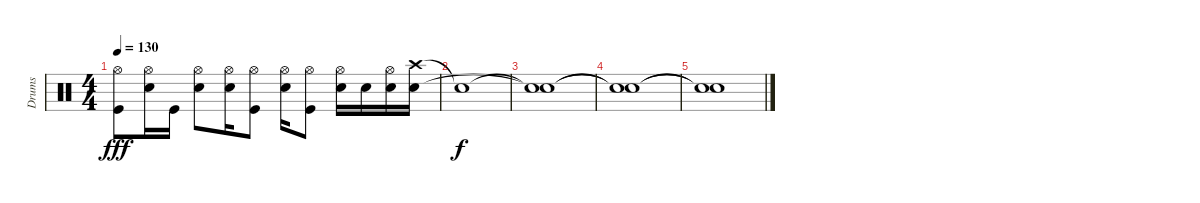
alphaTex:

\track ("Drums" "Drums") {instrument percussion}
\staff {score}
\articulation defaults
\ts (4 4)
\tempo 130
\clef neutral
\ks c
("Kick (hit)" "Hi-Hat (open)").8{dy fff} ("Snare (hit) 2" "Hi-Hat (open)").16 "Kick (hit)".16 ("Snare (hit) 2" "Hi-Hat (open)").8 ("Snare (hit) 2" "Hi-Hat (open)").16 ("Kick (hit)" "Hi-Hat (open)").8 ("Snare (hit) 2" "Hi-Hat (open)").16 ("Kick (hit)" "Hi-Hat (open)").8 ("Snare (hit) 2" "Hi-Hat (open)").16 "Snare (hit) 2".16 ("Snare (hit) 2" "Hi-Hat (open)").16 ("Crash high (hit)" "Snare (hit) 2").16 |
"Snare (hit)"{t}.1{dy f} |
("Snare (hit)"{t} "Snare (hit)"{t}).1 |
("Snare (hit)"{t} "Snare (hit)"{t}).1 |
("Snare (hit)"{t} "Snare (hit)"{t}).1
